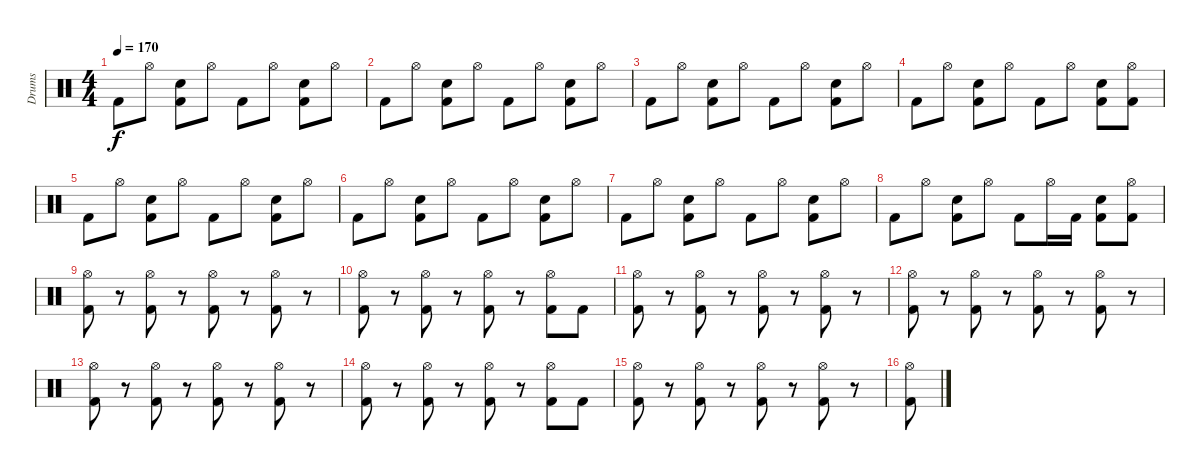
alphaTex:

\track ("Drums" "Drums") {instrument percussion}
\staff {score}
\articulation defaults
\ts (4 4)
\tempo 170
\clef neutral
\ks c "Kick (hit) 2".8{dy f} "Hi-Hat (open)".8
("Snare (hit) 2" "Kick (hit) 2").8 "Hi-Hat (open)".8 "Kick (hit) 2".8 "Hi-Hat (open)".8 ("Snare (hit) 2" "Kick (hit) 2").8 "Hi-Hat (open)".8 |
"Kick (hit) 2".8 "Hi-Hat (open)".8 ("Snare (hit) 2" "Kick (hit) 2").8 "Hi-Hat (open)".8 "Kick (hit) 2".8 "Hi-Hat (open)".8 ("Snare (hit) 2" "Kick (hit) 2").8 "Hi-Hat (open)".8 |
"Kick (hit) 2".8 "Hi-Hat (open)".8 ("Snare (hit) 2" "Kick (hit) 2").8 "Hi-Hat (open)".8 "Kick (hit) 2".8 "Hi-Hat (open)".8 ("Snare (hit) 2" "Kick (hit) 2").8 "Hi-Hat (open)".8 |
"Kick (hit) 2".8 "Hi-Hat (open)".8 ("Snare (hit) 2" "Kick (hit) 2").8 "Hi-Hat (open)".8 "Kick (hit) 2".8 "Hi-Hat (open)".8 ("Snare (hit) 2" "Kick (hit) 2").8 ("Hi-Hat (open)" "Kick (hit) 2").8 |
"Kick (hit) 2".8 "Hi-Hat (open)".8 ("Snare (hit) 2" "Kick (hit) 2").8 "Hi-Hat (open)".8 "Kick (hit) 2".8 "Hi-Hat (open)".8 ("Snare (hit) 2" "Kick (hit) 2").8 "Hi-Hat (open)".8 |
"Kick (hit) 2".8 "Hi-Hat (open)".8 ("Snare (hit) 2" "Kick (hit) 2").8 "Hi-Hat (open)".8 "Kick (hit) 2".8 "Hi-Hat (open)".8 ("Snare (hit) 2" "Kick (hit) 2").8 "Hi-Hat (open)".8 |
"Kick (hit) 2".8 "Hi-Hat (open)".8 ("Snare (hit) 2" "Kick (hit) 2").8 "Hi-Hat (open)".8 "Kick (hit) 2".8 "Hi-Hat (open)".8 ("Snare (hit) 2" "Kick (hit) 2").8 "Hi-Hat (open)".8 |
"Kick (hit) 2".8 "Hi-Hat (open)".8 ("Snare (hit) 2" "Kick (hit) 2").8 "Hi-Hat (open)".8 "Kick (hit) 2".8 "Hi-Hat (open)".16 "Kick (hit) 2".16 ("Snare (hit) 2" "Kick (hit) 2").8 ("Hi-Hat (open)" "Kick (hit) 2").8 |
("Hi-Hat (open)" "Kick (hit) 2").8 r.8 ("Hi-Hat (open)" "Kick (hit) 2").8 r.8 ("Hi-Hat (open)" "Kick (hit) 2").8 r.8 ("Hi-Hat (open)" "Kick (hit) 2").8 r.8 |
("Hi-Hat (open)" "Kick (hit) 2").8 r.8 ("Hi-Hat (open)" "Kick (hit) 2").8 r.8 ("Hi-Hat (open)" "Kick (hit) 2").8 r.8 ("Hi-Hat (open)" "Kick (hit) 2").8 "Kick (hit) 2".8 |
("Hi-Hat (open)" "Kick (hit) 2").8 r.8 ("Hi-Hat (open)" "Kick (hit) 2").8 r.8 ("Hi-Hat (open)" "Kick (hit) 2").8 r.8 ("Hi-Hat (open)" "Kick (hit) 2").8 r.8 |
("Hi-Hat (open)" "Kick (hit) 2").8 r.8 ("Hi-Hat (open)" "Kick (hit) 2").8 r.8 ("Hi-Hat (open)" "Kick (hit) 2").8 r.8 ("Hi-Hat (open)" "Kick (hit) 2").8 r.8 |
("Hi-Hat (open)" "Kick (hit) 2").8 r.8 ("Hi-Hat (open)" "Kick (hit) 2").8 r.8 ("Hi-Hat (open)" "Kick (hit) 2").8 r.8 ("Hi-Hat (open)" "Kick (hit) 2").8 r.8 |
("Hi-Hat (open)" "Kick (hit) 2").8 r.8 ("Hi-Hat (open)" "Kick (hit) 2").8 r.8 ("Hi-Hat (open)" "Kick (hit) 2").8 r.8 ("Hi-Hat (open)" "Kick (hit) 2").8 "Kick (hit) 2".8 |
("Hi-Hat (open)" "Kick (hit) 2").8 r.8 ("Hi-Hat (open)" "Kick (hit) 2").8 r.8 ("Hi-Hat (open)" "Kick (hit) 2").8 r.8 ("Hi-Hat (open)" "Kick (hit) 2").8 r.8 |
("Hi-Hat (open)" "Kick (hit) 2").8
